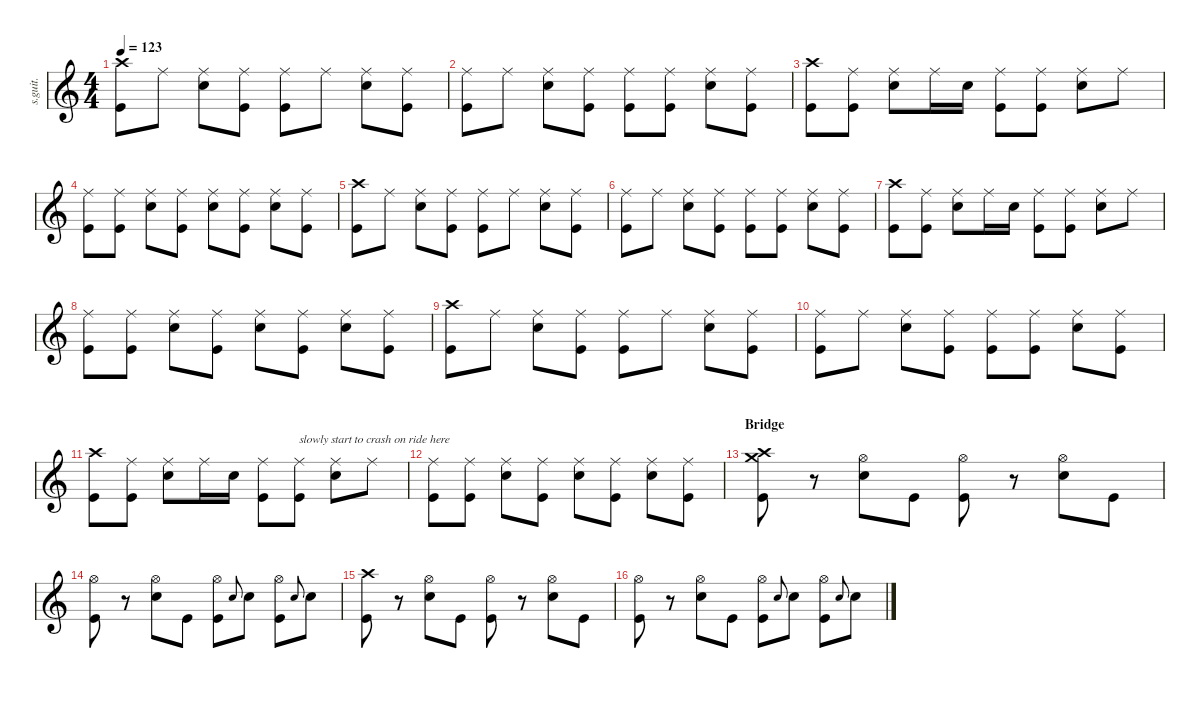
\defaultSystemsLayout 4
\hideDynamics
\bracketExtendMode nobrackets
\track ("Dave Grohl" "s.guit.") {instrument percussion}
\staff {score}
\articulation defaults
\ts (4 4)
\tempo 123
\clef g2
\ks c
("Crash high (hit)" "Kick (hit)").8{lyrics (0 "") lyrics (1 "") lyrics (2 "") lyrics (3 "") lyrics (4 "") dy ff} "Ride (middle)".8{lyrics (0 "") lyrics (1 "") lyrics (2 "") lyrics (3 "") lyrics (4 "")} ("Ride (middle)" "Snare (hit) 2").8{lyrics (0 "") lyrics (1 "") lyrics (2 "") lyrics (3 "") lyrics (4 "")} ("Kick (hit)" "Ride (middle)").8{lyrics (0 "") lyrics (1 "") lyrics (2 "") lyrics (3 "") lyrics (4 "")} ("Ride (middle)" "Kick (hit)").8{lyrics (0 "") lyrics (1 "") lyrics (2 "") lyrics (3 "") lyrics (4 "")} "Ride (middle)".8{lyrics (0 "") lyrics (1 "") lyrics (2 "") lyrics (3 "") lyrics (4 "")} ("Ride (middle)" "Snare (hit) 2").8{lyrics (0 "") lyrics (1 "") lyrics (2 "") lyrics (3 "") lyrics (4 "")} ("Kick (hit)" "Ride (middle)").8{lyrics (0 "") lyrics (1 "") lyrics (2 "") lyrics (3 "") lyrics (4 "")} |
("Ride (middle)" "Kick (hit)").8{lyrics (0 "") lyrics (1 "") lyrics (2 "") lyrics (3 "") lyrics (4 "")} "Ride (middle)".8{lyrics (0 "") lyrics (1 "") lyrics (2 "") lyrics (3 "") lyrics (4 "")} ("Ride (middle)" "Snare (hit) 2").8{lyrics (0 "") lyrics (1 "") lyrics (2 "") lyrics (3 "") lyrics (4 "")} ("Kick (hit)" "Ride (middle)").8{lyrics (0 "") lyrics (1 "") lyrics (2 "") lyrics (3 "") lyrics (4 "")} ("Ride (middle)" "Kick (hit)").8{lyrics (0 "") lyrics (1 "") lyrics (2 "") lyrics (3 "") lyrics (4 "")} ("Ride (middle)" "Kick (hit)").8{lyrics (0 "") lyrics (1 "") lyrics (2 "") lyrics (3 "") lyrics (4 "")} ("Ride (middle)" "Snare (hit) 2").8{lyrics (0 "") lyrics (1 "") lyrics (2 "") lyrics (3 "") lyrics (4 "")} ("Kick (hit)" "Ride (middle)").8{lyrics (0 "") lyrics (1 "") lyrics (2 "") lyrics (3 "") lyrics (4 "")} |
("Crash high (hit)" "Kick (hit)").8{lyrics (0 "") lyrics (1 "") lyrics (2 "") lyrics (3 "") lyrics (4 "")} ("Kick (hit)" "Ride (middle)").8{lyrics (0 "") lyrics (1 "") lyrics (2 "") lyrics (3 "") lyrics (4 "")} ("Ride (middle)" "Snare (hit) 2").8{lyrics (0 "") lyrics (1 "") lyrics (2 "") lyrics (3 "") lyrics (4 "")} "Ride (middle)".16{lyrics (0 "") lyrics (1 "") lyrics (2 "") lyrics (3 "") lyrics (4 "")} "Snare (hit) 2".16{lyrics (0 "") lyrics (1 "") lyrics (2 "") lyrics (3 "") lyrics (4 "") dy mf} ("Ride (middle)" "Kick (hit)").8{lyrics (0 "") lyrics (1 "") lyrics (2 "") lyrics (3 "") lyrics (4 "") dy ff} ("Ride (middle)" "Kick (hit)").8{lyrics (0 "") lyrics (1 "") lyrics (2 "") lyrics (3 "") lyrics (4 "")} ("Ride (middle)" "Snare (hit) 2").8{lyrics (0 "") lyrics (1 "") lyrics (2 "") lyrics (3 "") lyrics (4 "")} "Ride (middle)".8{lyrics (0 "") lyrics (1 "") lyrics (2 "") lyrics (3 "") lyrics (4 "")} |
("Ride (middle)" "Kick (hit)").8{lyrics (0 "") lyrics (1 "") lyrics (2 "") lyrics (3 "") lyrics (4 "")} ("Kick (hit)" "Ride (middle)").8{lyrics (0 "") lyrics (1 "") lyrics (2 "") lyrics (3 "") lyrics (4 "")} ("Snare (hit) 2" "Ride (middle)").8{lyrics (0 "") lyrics (1 "") lyrics (2 "") lyrics (3 "") lyrics (4 "")} ("Kick (hit)" "Ride (middle)").8{lyrics (0 "") lyrics (1 "") lyrics (2 "") lyrics (3 "") lyrics (4 "")} ("Snare (hit) 2" "Ride (middle)").8{lyrics (0 "") lyrics (1 "") lyrics (2 "") lyrics (3 "") lyrics (4 "")} ("Ride (middle)" "Kick (hit)").8{lyrics (0 "") lyrics (1 "") lyrics (2 "") lyrics (3 "") lyrics (4 "")} ("Snare (hit) 2" "Ride (middle)").8{lyrics (0 "") lyrics (1 "") lyrics (2 "") lyrics (3 "") lyrics (4 "")} ("Kick (hit)" "Ride (middle)").8{lyrics (0 "") lyrics (1 "") lyrics (2 "") lyrics (3 "") lyrics (4 "")} |
("Crash high (hit)" "Kick (hit)").8{lyrics (0 "") lyrics (1 "") lyrics (2 "") lyrics (3 "") lyrics (4 "")} "Ride (middle)".8{lyrics (0 "") lyrics (1 "") lyrics (2 "") lyrics (3 "") lyrics (4 "")} ("Ride (middle)" "Snare (hit) 2").8{lyrics (0 "") lyrics (1 "") lyrics (2 "") lyrics (3 "") lyrics (4 "")} ("Kick (hit)" "Ride (middle)").8{lyrics (0 "") lyrics (1 "") lyrics (2 "") lyrics (3 "") lyrics (4 "")} ("Ride (middle)" "Kick (hit)").8{lyrics (0 "") lyrics (1 "") lyrics (2 "") lyrics (3 "") lyrics (4 "")} "Ride (middle)".8{lyrics (0 "") lyrics (1 "") lyrics (2 "") lyrics (3 "") lyrics (4 "")} ("Ride (middle)" "Snare (hit) 2").8{lyrics (0 "") lyrics (1 "") lyrics (2 "") lyrics (3 "") lyrics (4 "")} ("Kick (hit)" "Ride (middle)").8{lyrics (0 "") lyrics (1 "") lyrics (2 "") lyrics (3 "") lyrics (4 "")} |
("Ride (middle)" "Kick (hit)").8{lyrics (0 "") lyrics (1 "") lyrics (2 "") lyrics (3 "") lyrics (4 "")} "Ride (middle)".8{lyrics (0 "") lyrics (1 "") lyrics (2 "") lyrics (3 "") lyrics (4 "")} ("Ride (middle)" "Snare (hit) 2").8{lyrics (0 "") lyrics (1 "") lyrics (2 "") lyrics (3 "") lyrics (4 "")} ("Kick (hit)" "Ride (middle)").8{lyrics (0 "") lyrics (1 "") lyrics (2 "") lyrics (3 "") lyrics (4 "")} ("Ride (middle)" "Kick (hit)").8{lyrics (0 "") lyrics (1 "") lyrics (2 "") lyrics (3 "") lyrics (4 "")} ("Ride (middle)" "Kick (hit)").8{lyrics (0 "") lyrics (1 "") lyrics (2 "") lyrics (3 "") lyrics (4 "")} ("Ride (middle)" "Snare (hit) 2").8{lyrics (0 "") lyrics (1 "") lyrics (2 "") lyrics (3 "") lyrics (4 "")} ("Kick (hit)" "Ride (middle)").8{lyrics (0 "") lyrics (1 "") lyrics (2 "") lyrics (3 "") lyrics (4 "")} |
("Crash high (hit)" "Kick (hit)").8{lyrics (0 "") lyrics (1 "") lyrics (2 "") lyrics (3 "") lyrics (4 "")} ("Kick (hit)" "Ride (middle)").8{lyrics (0 "") lyrics (1 "") lyrics (2 "") lyrics (3 "") lyrics (4 "")} ("Ride (middle)" "Snare (hit) 2").8{lyrics (0 "") lyrics (1 "") lyrics (2 "") lyrics (3 "") lyrics (4 "")} "Ride (middle)".16{lyrics (0 "") lyrics (1 "") lyrics (2 "") lyrics (3 "") lyrics (4 "")} "Snare (hit) 2".16{lyrics (0 "") lyrics (1 "") lyrics (2 "") lyrics (3 "") lyrics (4 "") dy mf} ("Ride (middle)" "Kick (hit)").8{lyrics (0 "") lyrics (1 "") lyrics (2 "") lyrics (3 "") lyrics (4 "") dy ff} ("Ride (middle)" "Kick (hit)").8{lyrics (0 "") lyrics (1 "") lyrics (2 "") lyrics (3 "") lyrics (4 "")} ("Ride (middle)" "Snare (hit) 2").8{lyrics (0 "") lyrics (1 "") lyrics (2 "") lyrics (3 "") lyrics (4 "")} "Ride (middle)".8{lyrics (0 "") lyrics (1 "") lyrics (2 "") lyrics (3 "") lyrics (4 "")} |
("Ride (middle)" "Kick (hit)").8{lyrics (0 "") lyrics (1 "") lyrics (2 "") lyrics (3 "") lyrics (4 "")} ("Kick (hit)" "Ride (middle)").8{lyrics (0 "") lyrics (1 "") lyrics (2 "") lyrics (3 "") lyrics (4 "")} ("Snare (hit) 2" "Ride (middle)").8{lyrics (0 "") lyrics (1 "") lyrics (2 "") lyrics (3 "") lyrics (4 "")} ("Kick (hit)" "Ride (middle)").8{lyrics (0 "") lyrics (1 "") lyrics (2 "") lyrics (3 "") lyrics (4 "")} ("Snare (hit) 2" "Ride (middle)").8{lyrics (0 "") lyrics (1 "") lyrics (2 "") lyrics (3 "") lyrics (4 "")} ("Ride (middle)" "Kick (hit)").8{lyrics (0 "") lyrics (1 "") lyrics (2 "") lyrics (3 "") lyrics (4 "")} ("Snare (hit) 2" "Ride (middle)").8{lyrics (0 "") lyrics (1 "") lyrics (2 "") lyrics (3 "") lyrics (4 "")} ("Kick (hit)" "Ride (middle)").8{lyrics (0 "") lyrics (1 "") lyrics (2 "") lyrics (3 "") lyrics (4 "")} |
("Crash high (hit)" "Kick (hit)").8{lyrics (0 "") lyrics (1 "") lyrics (2 "") lyrics (3 "") lyrics (4 "")} "Ride (middle)".8{lyrics (0 "") lyrics (1 "") lyrics (2 "") lyrics (3 "") lyrics (4 "")} ("Ride (middle)" "Snare (hit) 2").8{lyrics (0 "") lyrics (1 "") lyrics (2 "") lyrics (3 "") lyrics (4 "")} ("Kick (hit)" "Ride (middle)").8{lyrics (0 "") lyrics (1 "") lyrics (2 "") lyrics (3 "") lyrics (4 "")} ("Ride (middle)" "Kick (hit)").8{lyrics (0 "") lyrics (1 "") lyrics (2 "") lyrics (3 "") lyrics (4 "")} "Ride (middle)".8{lyrics (0 "") lyrics (1 "") lyrics (2 "") lyrics (3 "") lyrics (4 "")} ("Ride (middle)" "Snare (hit) 2").8{lyrics (0 "") lyrics (1 "") lyrics (2 "") lyrics (3 "") lyrics (4 "")} ("Kick (hit)" "Ride (middle)").8{lyrics (0 "") lyrics (1 "") lyrics (2 "") lyrics (3 "") lyrics (4 "")} |
("Ride (middle)" "Kick (hit)").8{lyrics (0 "") lyrics (1 "") lyrics (2 "") lyrics (3 "") lyrics (4 "")} "Ride (middle)".8{lyrics (0 "") lyrics (1 "") lyrics (2 "") lyrics (3 "") lyrics (4 "")} ("Ride (middle)" "Snare (hit) 2").8{lyrics (0 "") lyrics (1 "") lyrics (2 "") lyrics (3 "") lyrics (4 "")} ("Kick (hit)" "Ride (middle)").8{lyrics (0 "") lyrics (1 "") lyrics (2 "") lyrics (3 "") lyrics (4 "")} ("Ride (middle)" "Kick (hit)").8{lyrics (0 "") lyrics (1 "") lyrics (2 "") lyrics (3 "") lyrics (4 "")} ("Ride (middle)" "Kick (hit)").8{lyrics (0 "") lyrics (1 "") lyrics (2 "") lyrics (3 "") lyrics (4 "")} ("Ride (middle)" "Snare (hit) 2").8{lyrics (0 "") lyrics (1 "") lyrics (2 "") lyrics (3 "") lyrics (4 "")} ("Kick (hit)" "Ride (middle)").8{lyrics (0 "") lyrics (1 "") lyrics (2 "") lyrics (3 "") lyrics (4 "")} |
("Crash high (hit)" "Kick (hit)").8{lyrics (0 "") lyrics (1 "") lyrics (2 "") lyrics (3 "") lyrics (4 "")} ("Kick (hit)" "Ride (middle)").8{lyrics (0 "") lyrics (1 "") lyrics (2 "") lyrics (3 "") lyrics (4 "")} ("Ride (middle)" "Snare (hit) 2").8{lyrics (0 "") lyrics (1 "") lyrics (2 "") lyrics (3 "") lyrics (4 "")} "Ride (middle)".16{lyrics (0 "") lyrics (1 "") lyrics (2 "") lyrics (3 "") lyrics (4 "")} "Snare (hit) 2".16{lyrics (0 "") lyrics (1 "") lyrics (2 "") lyrics (3 "") lyrics (4 "") dy mf} ("Ride (middle)" "Kick (hit)").8{lyrics (0 "") lyrics (1 "") lyrics (2 "") lyrics (3 "") lyrics (4 "") dy ff} ("Ride (middle)" "Kick (hit)").8{txt "slowly start to crash on ride here" lyrics (0 "") lyrics (1 "") lyrics (2 "") lyrics (3 "") lyrics (4 "")} ("Ride (middle)" "Snare (hit) 2").8{lyrics (0 "") lyrics (1 "") lyrics (2 "") lyrics (3 "") lyrics (4 "")} "Ride (middle)".8{lyrics (0 "") lyrics (1 "") lyrics (2 "") lyrics (3 "") lyrics (4 "")} |
("Ride (middle)" "Kick (hit)").8{lyrics (0 "") lyrics (1 "") lyrics (2 "") lyrics (3 "") lyrics (4 "")} ("Kick (hit)" "Ride (middle)").8{lyrics (0 "") lyrics (1 "") lyrics (2 "") lyrics (3 "") lyrics (4 "")} ("Snare (hit) 2" "Ride (middle)").8{lyrics (0 "") lyrics (1 "") lyrics (2 "") lyrics (3 "") lyrics (4 "")} ("Kick (hit)" "Ride (middle)").8{lyrics (0 "") lyrics (1 "") lyrics (2 "") lyrics (3 "") lyrics (4 "")} ("Snare (hit) 2" "Ride (middle)").8{lyrics (0 "") lyrics (1 "") lyrics (2 "") lyrics (3 "") lyrics (4 "")} ("Ride (middle)" "Kick (hit)").8{lyrics (0 "") lyrics (1 "") lyrics (2 "") lyrics (3 "") lyrics (4 "")} ("Snare (hit) 2" "Ride (middle)").8{lyrics (0 "") lyrics (1 "") lyrics (2 "") lyrics (3 "") lyrics (4 "")} ("Kick (hit)" "Ride (middle)").8{lyrics (0 "") lyrics (1 "") lyrics (2 "") lyrics (3 "") lyrics (4 "")} |
\section ("" "Bridge")
("Crash high (hit)" "Kick (hit)" "Crash medium (hit)").8{lyrics (0 "") lyrics (1 "") lyrics (2 "") lyrics (3 "") lyrics (4 "") dy fff} r.8 ("Hi-Hat (open)" "Snare (hit) 2").8{lyrics (0 "") lyrics (1 "") lyrics (2 "") lyrics (3 "") lyrics (4 "")} "Kick (hit)".8{lyrics (0 "") lyrics (1 "") lyrics (2 "") lyrics (3 "") lyrics (4 "")} ("Hi-Hat (open)" "Kick (hit)").8{lyrics (0 "") lyrics (1 "") lyrics (2 "") lyrics (3 "") lyrics (4 "")} r.8 ("Hi-Hat (open)" "Snare (hit) 2").8{lyrics (0 "") lyrics (1 "") lyrics (2 "") lyrics (3 "") lyrics (4 "")} "Kick (hit)".8{lyrics (0 "") lyrics (1 "") lyrics (2 "") lyrics (3 "") lyrics (4 "")} |
("Hi-Hat (open)" "Kick (hit)").8{lyrics (0 "") lyrics (1 "") lyrics (2 "") lyrics (3 "") lyrics (4 "")} r.8 ("Hi-Hat (open)" "Snare (hit) 2").8{lyrics (0 "") lyrics (1 "") lyrics (2 "") lyrics (3 "") lyrics (4 "")} "Kick (hit)".8{lyrics (0 "") lyrics (1 "") lyrics (2 "") lyrics (3 "") lyrics (4 "")} ("Hi-Hat (open)" "Kick (hit)").8{lyrics (0 "") lyrics (1 "") lyrics (2 "") lyrics (3 "") lyrics (4 "")} "Snare (hit) 2".8{lyrics (0 "") lyrics (1 "") lyrics (2 "") lyrics (3 "") lyrics (4 "") gr onbeat} "Snare (hit) 2".8{lyrics (0 "") lyrics (1 "") lyrics (2 "") lyrics (3 "") lyrics (4 "")} ("Hi-Hat (open)" "Kick (hit)").8{lyrics (0 "") lyrics (1 "") lyrics (2 "") lyrics (3 "") lyrics (4 "")} "Snare (hit) 2".8{lyrics (0 "") lyrics (1 "") lyrics (2 "") lyrics (3 "") lyrics (4 "") gr onbeat} "Snare (hit) 2".8{lyrics (0 "") lyrics (1 "") lyrics (2 "") lyrics (3 "") lyrics (4 "")} |
("Crash high (hit)" "Kick (hit)").8{lyrics (0 "") lyrics (1 "") lyrics (2 "") lyrics (3 "") lyrics (4 "")} r.8 ("Hi-Hat (open)" "Snare (hit) 2").8{lyrics (0 "") lyrics (1 "") lyrics (2 "") lyrics (3 "") lyrics (4 "")} "Kick (hit)".8{lyrics (0 "") lyrics (1 "") lyrics (2 "") lyrics (3 "") lyrics (4 "")} ("Hi-Hat (open)" "Kick (hit)").8{lyrics (0 "") lyrics (1 "") lyrics (2 "") lyrics (3 "") lyrics (4 "")} r.8 ("Hi-Hat (open)" "Snare (hit) 2").8{lyrics (0 "") lyrics (1 "") lyrics (2 "") lyrics (3 "") lyrics (4 "")} "Kick (hit)".8{lyrics (0 "") lyrics (1 "") lyrics (2 "") lyrics (3 "") lyrics (4 "")} |
("Hi-Hat (open)" "Kick (hit)").8{lyrics (0 "") lyrics (1 "") lyrics (2 "") lyrics (3 "") lyrics (4 "")} r.8 ("Hi-Hat (open)" "Snare (hit) 2").8{lyrics (0 "") lyrics (1 "") lyrics (2 "") lyrics (3 "") lyrics (4 "")} "Kick (hit)".8{lyrics (0 "") lyrics (1 "") lyrics (2 "") lyrics (3 "") lyrics (4 "")} ("Hi-Hat (open)" "Kick (hit)").8{lyrics (0 "") lyrics (1 "") lyrics (2 "") lyrics (3 "") lyrics (4 "")} "Snare (hit) 2".8{lyrics (0 "") lyrics (1 "") lyrics (2 "") lyrics (3 "") lyrics (4 "") gr onbeat} "Snare (hit) 2".8{lyrics (0 "") lyrics (1 "") lyrics (2 "") lyrics (3 "") lyrics (4 "")} ("Hi-Hat (open)" "Kick (hit)").8{lyrics (0 "") lyrics (1 "") lyrics (2 "") lyrics (3 "") lyrics (4 "")} "Snare (hit) 2".8{lyrics (0 "") lyrics (1 "") lyrics (2 "") lyrics (3 "") lyrics (4 "") gr onbeat} "Snare (hit) 2".8{lyrics (0 "") lyrics (1 "") lyrics (2 "") lyrics (3 "") lyrics (4 "")}
